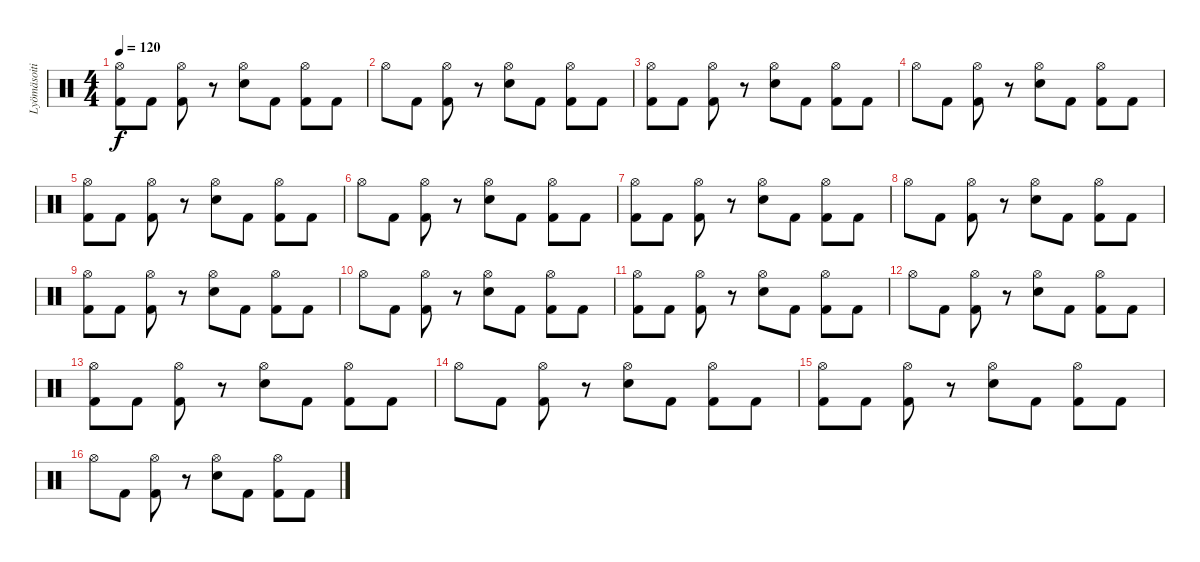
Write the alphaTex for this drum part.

\track ("Lyömäsoitin" "Lyömäsoiti") {instrument percussion}
\staff {score}
\articulation defaults
\ts (4 4)
\tempo 120
\clef neutral
\ks c
("Hi-Hat (open)" "Kick (hit) 2").8{dy f} "Kick (hit) 2".8 ("Hi-Hat (open)" "Kick (hit) 2").8 r.8 ("Hi-Hat (open)" "Snare (hit) 2").8 "Kick (hit) 2".8 ("Hi-Hat (open)" "Kick (hit) 2").8 "Kick (hit) 2".8 |
"Hi-Hat (open)".8 "Kick (hit) 2".8 ("Hi-Hat (open)" "Kick (hit) 2").8 r.8 ("Hi-Hat (open)" "Snare (hit) 2").8 "Kick (hit) 2".8 ("Hi-Hat (open)" "Kick (hit) 2").8 "Kick (hit) 2".8 |
("Hi-Hat (open)" "Kick (hit) 2").8 "Kick (hit) 2".8 ("Hi-Hat (open)" "Kick (hit) 2").8 r.8 ("Hi-Hat (open)" "Snare (hit) 2").8 "Kick (hit) 2".8 ("Hi-Hat (open)" "Kick (hit) 2").8 "Kick (hit) 2".8 |
"Hi-Hat (open)".8 "Kick (hit) 2".8 ("Hi-Hat (open)" "Kick (hit) 2").8 r.8 ("Hi-Hat (open)" "Snare (hit) 2").8 "Kick (hit) 2".8 ("Hi-Hat (open)" "Kick (hit) 2").8 "Kick (hit) 2".8 |
("Hi-Hat (open)" "Kick (hit) 2").8 "Kick (hit) 2".8 ("Hi-Hat (open)" "Kick (hit) 2").8 r.8 ("Hi-Hat (open)" "Snare (hit) 2").8 "Kick (hit) 2".8 ("Hi-Hat (open)" "Kick (hit) 2").8 "Kick (hit) 2".8 |
"Hi-Hat (open)".8 "Kick (hit) 2".8 ("Hi-Hat (open)" "Kick (hit) 2").8 r.8 ("Hi-Hat (open)" "Snare (hit) 2").8 "Kick (hit) 2".8 ("Hi-Hat (open)" "Kick (hit) 2").8 "Kick (hit) 2".8 |
("Hi-Hat (open)" "Kick (hit) 2").8 "Kick (hit) 2".8 ("Hi-Hat (open)" "Kick (hit) 2").8 r.8 ("Hi-Hat (open)" "Snare (hit) 2").8 "Kick (hit) 2".8 ("Hi-Hat (open)" "Kick (hit) 2").8 "Kick (hit) 2".8 |
"Hi-Hat (open)".8 "Kick (hit) 2".8 ("Hi-Hat (open)" "Kick (hit) 2").8 r.8 ("Hi-Hat (open)" "Snare (hit) 2").8 "Kick (hit) 2".8 ("Hi-Hat (open)" "Kick (hit) 2").8 "Kick (hit) 2".8 |
("Hi-Hat (open)" "Kick (hit) 2").8 "Kick (hit) 2".8 ("Hi-Hat (open)" "Kick (hit) 2").8 r.8 ("Hi-Hat (open)" "Snare (hit) 2").8 "Kick (hit) 2".8 ("Hi-Hat (open)" "Kick (hit) 2").8 "Kick (hit) 2".8 |
"Hi-Hat (open)".8 "Kick (hit) 2".8 ("Hi-Hat (open)" "Kick (hit) 2").8 r.8 ("Hi-Hat (open)" "Snare (hit) 2").8 "Kick (hit) 2".8 ("Hi-Hat (open)" "Kick (hit) 2").8 "Kick (hit) 2".8 |
("Hi-Hat (open)" "Kick (hit) 2").8 "Kick (hit) 2".8 ("Hi-Hat (open)" "Kick (hit) 2").8 r.8 ("Hi-Hat (open)" "Snare (hit) 2").8 "Kick (hit) 2".8 ("Hi-Hat (open)" "Kick (hit) 2").8 "Kick (hit) 2".8 |
"Hi-Hat (open)".8 "Kick (hit) 2".8 ("Hi-Hat (open)" "Kick (hit) 2").8 r.8 ("Hi-Hat (open)" "Snare (hit) 2").8 "Kick (hit) 2".8 ("Hi-Hat (open)" "Kick (hit) 2").8 "Kick (hit) 2".8 |
("Hi-Hat (open)" "Kick (hit) 2").8 "Kick (hit) 2".8 ("Hi-Hat (open)" "Kick (hit) 2").8 r.8 ("Hi-Hat (open)" "Snare (hit) 2").8 "Kick (hit) 2".8 ("Hi-Hat (open)" "Kick (hit) 2").8 "Kick (hit) 2".8 |
"Hi-Hat (open)".8 "Kick (hit) 2".8 ("Hi-Hat (open)" "Kick (hit) 2").8 r.8 ("Hi-Hat (open)" "Snare (hit) 2").8 "Kick (hit) 2".8 ("Hi-Hat (open)" "Kick (hit) 2").8 "Kick (hit) 2".8 |
("Hi-Hat (open)" "Kick (hit) 2").8 "Kick (hit) 2".8 ("Hi-Hat (open)" "Kick (hit) 2").8 r.8 ("Hi-Hat (open)" "Snare (hit) 2").8 "Kick (hit) 2".8 ("Hi-Hat (open)" "Kick (hit) 2").8 "Kick (hit) 2".8 |
"Hi-Hat (open)".8 "Kick (hit) 2".8 ("Hi-Hat (open)" "Kick (hit) 2").8 r.8 ("Hi-Hat (open)" "Snare (hit) 2").8 "Kick (hit) 2".8 ("Hi-Hat (open)" "Kick (hit) 2").8 "Kick (hit) 2".8
